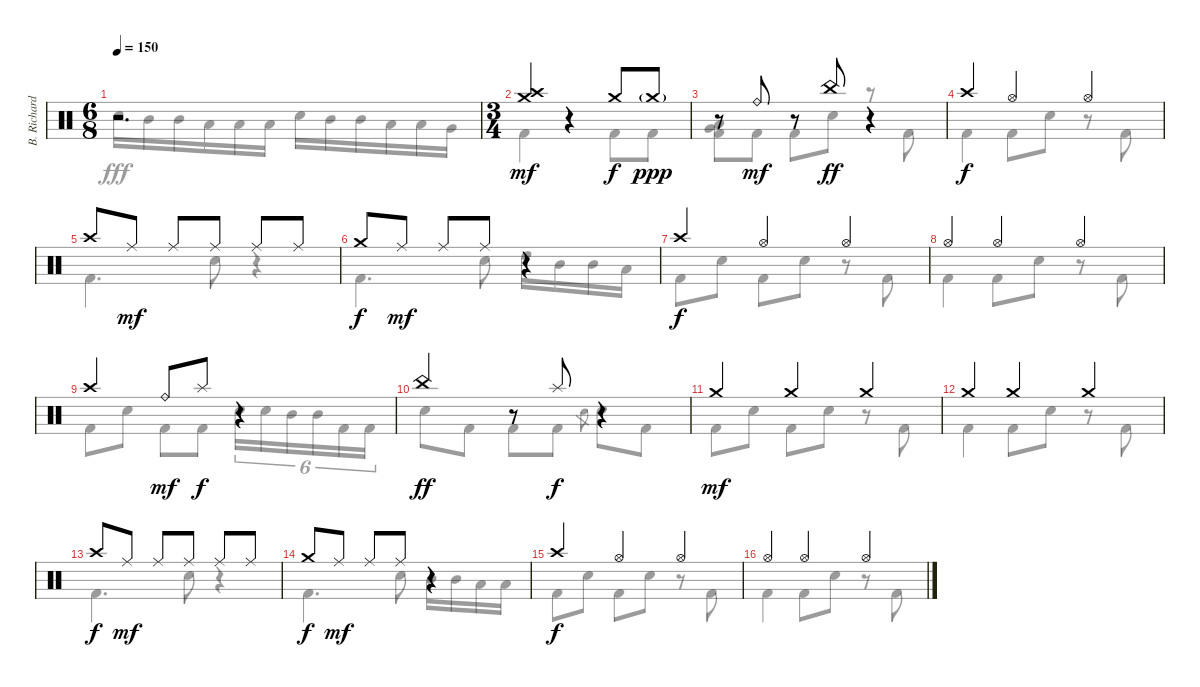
\track ("B. Richardson Drums" "B. Richard") {instrument percussion}
\staff {score}
\articulation defaults
\voice
\ts (6 8)
\tempo 150
\clef neutral
\ks c
r.2{d dy mp} |
\ts (3 4)
("Crash high (hit)" "Crash medium (hit)").4{dy mf} r.4 "Crash medium (hit)".8{dy f} "Crash medium (hit)"{g}.8{dy ppp} |
r.8 "Ride (bell)".8{dy mf} r.8 "China (hit)".8{dy ff} r.4 |
"Crash high (hit)".4{dy f} "Hi-Hat (open)".4 "Hi-Hat (open)".4 |
"Crash high (hit)".8 "Ride (middle)".8{dy mf} "Ride (middle)".8 "Ride (middle)".8 "Ride (middle)".8 "Ride (middle)".8 |
"Crash medium (hit)".8{dy f} "Ride (middle)".8{dy mf} "Ride (middle)".8 "Ride (middle)".8 r.4 |
"Crash high (hit)".4{dy f} "Hi-Hat (open)".4 "Hi-Hat (open)".4 |
"Hi-Hat (open)".4 "Hi-Hat (open)".4 "Hi-Hat (open)".4 |
"Crash high (hit)".4 "Ride (bell)".8{dy mf} "Splash (hit)".8{dy f} r.4 |
"China (hit)".4{dy ff} r.8 "Splash (hit)".8{dy f} r.4 |
"Crash medium (hit)".4{dy mf} "Crash medium (hit)".4 "Crash medium (hit)".4 |
"Crash medium (hit)".4 "Crash medium (hit)".4 "Crash medium (hit)".4 |
"Crash high (hit)".8{dy f} "Ride (middle)".8{dy mf} "Ride (middle)".8 "Ride (middle)".8 "Ride (middle)".8 "Ride (middle)".8 |
"Crash medium (hit)".8{dy f} "Ride (middle)".8{dy mf} "Ride (middle)".8 "Ride (middle)".8 r.4 |
"Crash high (hit)".4{dy f} "Hi-Hat (open)".4 "Hi-Hat (open)".4 |
"Hi-Hat (open)".4 "Hi-Hat (open)".4 "Hi-Hat (open)".4
\voice
\clef neutral
\ottava regular
\simile none
\ks c "Electric Snare (hit)".16{dy fff} "Mid Tom (hit)".16 "Mid Tom (hit)".16 "Low Tom (hit)".16 "Low Tom (hit)".16 "Low Tom (hit)".16 "Electric Snare (hit)".16 "Mid Tom (hit)".16 "Mid Tom (hit)".16 "Low Tom (hit)".16 "Low Tom (hit)".16 "Very Low Tom (hit)".16
|
"Kick (hit) 2".4 r.4 "Kick (hit) 2".8 "Kick (hit) 2".8 |
("Low Tom (hit)" "Very Low Tom (hit)" "Kick (hit) 2").8 "Kick (hit) 2".8 "Kick (hit) 2".8 "Electric Snare (hit)".8 r.8 "Kick (hit) 2".8 |
"Kick (hit) 2".4 "Kick (hit) 2".8 "Electric Snare (hit)".8 r.8 "Kick (hit) 2".8 |
"Kick (hit) 2".4{d} "Electric Snare (hit)".8 r.4 |
"Kick (hit) 2".4{d} "Electric Snare (hit)".8 "High Tom (hit)".16 "Mid Tom (hit)".16 "Mid Tom (hit)".16 "Low Tom (hit)".16 |
"Kick (hit) 2".8 "Electric Snare (hit)".8 "Kick (hit) 2".8 "Electric Snare (hit)".8 r.8 "Kick (hit) 2".8 |
"Kick (hit) 2".4 "Kick (hit) 2".8 "Electric Snare (hit)".8 r.8 "Kick (hit) 2".8 |
"Kick (hit) 2".8 "Electric Snare (hit)".8 "Kick (hit) 2".8 "Kick (hit) 2".8 "Electric Snare (hit)".16{tu (6 4)} "Electric Snare (hit)".16{tu (6 4)} "Mid Tom (hit)".16{tu (6 4)} "Mid Tom (hit)".16{tu (6 4)} "Kick (hit) 2".16{tu (6 4)} "Kick (hit) 2".16{tu (6 4)} |
"Electric Snare (hit)".8 "Kick (hit) 2".8 "Kick (hit) 2".8 "Kick (hit) 2".8 "Electric Snare (hit)".8{gr} "Electric Snare (hit)".8 "Kick (hit) 2".8 |
"Kick (hit) 2".8 "Electric Snare (hit)".8 "Kick (hit) 2".8 "Electric Snare (hit)".8 r.8 "Kick (hit) 2".8 |
"Kick (hit) 2".4 "Kick (hit) 2".8 "Electric Snare (hit)".8 r.8 "Kick (hit) 2".8 |
"Kick (hit) 2".4{d} "Electric Snare (hit)".8 r.4 |
"Kick (hit) 2".4{d} "Electric Snare (hit)".8 "Mid Tom (hit)".16 "Mid Tom (hit)".16 "Low Tom (hit)".16 "Low Tom (hit)".16 |
"Kick (hit) 2".8 "Electric Snare (hit)".8 "Kick (hit) 2".8 "Electric Snare (hit)".8 r.8 "Kick (hit) 2".8 |
"Kick (hit) 2".4 "Kick (hit) 2".8 "Electric Snare (hit)".8 r.8 "Kick (hit) 2".8
